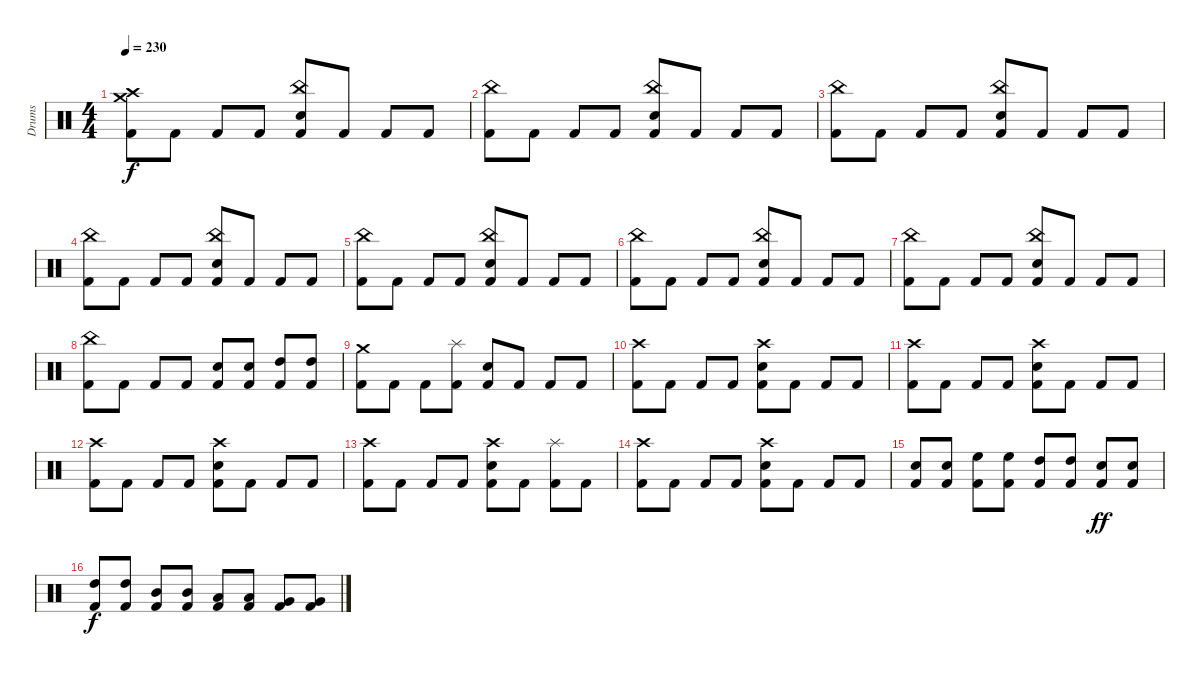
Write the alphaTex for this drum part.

\track ("Drums" "Drums") {instrument percussion}
\staff {score}
\articulation defaults
\ts (4 4)
\tempo 230
\clef neutral
\ks c
("Crash medium (hit)" "Crash high (hit)" "Kick (hit) 2").8{dy f} "Kick (hit) 2".8 "Kick (hit) 2".8 "Kick (hit) 2".8 ("China (hit)" "Electric Snare (hit)" "Kick (hit) 2").8 "Kick (hit) 2".8 "Kick (hit) 2".8 "Kick (hit) 2".8 |
("China (hit)" "Kick (hit) 2").8 "Kick (hit) 2".8 "Kick (hit) 2".8 "Kick (hit) 2".8 ("China (hit)" "Electric Snare (hit)" "Kick (hit) 2").8 "Kick (hit) 2".8 "Kick (hit) 2".8 "Kick (hit) 2".8 |
("China (hit)" "Kick (hit) 2").8 "Kick (hit) 2".8 "Kick (hit) 2".8 "Kick (hit) 2".8 ("China (hit)" "Electric Snare (hit)" "Kick (hit) 2").8 "Kick (hit) 2".8 "Kick (hit) 2".8 "Kick (hit) 2".8 |
("China (hit)" "Kick (hit) 2").8 "Kick (hit) 2".8 "Kick (hit) 2".8 "Kick (hit) 2".8 ("China (hit)" "Electric Snare (hit)" "Kick (hit) 2").8 "Kick (hit) 2".8 "Kick (hit) 2".8 "Kick (hit) 2".8 |
("China (hit)" "Kick (hit) 2").8 "Kick (hit) 2".8 "Kick (hit) 2".8 "Kick (hit) 2".8 ("China (hit)" "Electric Snare (hit)" "Kick (hit) 2").8 "Kick (hit) 2".8 "Kick (hit) 2".8 "Kick (hit) 2".8 |
("China (hit)" "Kick (hit) 2").8 "Kick (hit) 2".8 "Kick (hit) 2".8 "Kick (hit) 2".8 ("China (hit)" "Electric Snare (hit)" "Kick (hit) 2").8 "Kick (hit) 2".8 "Kick (hit) 2".8 "Kick (hit) 2".8 |
("China (hit)" "Kick (hit) 2").8 "Kick (hit) 2".8 "Kick (hit) 2".8 "Kick (hit) 2".8 ("China (hit)" "Electric Snare (hit)" "Kick (hit) 2").8 "Kick (hit) 2".8 "Kick (hit) 2".8 "Kick (hit) 2".8 |
("China (hit)" "Kick (hit) 2").8 "Kick (hit) 2".8 "Kick (hit) 2".8 "Kick (hit) 2".8 ("Electric Snare (hit)" "Kick (hit) 2").8 ("Electric Snare (hit)" "Kick (hit) 2").8 ("High Tom (hit)" "Kick (hit) 2").8 ("High Tom (hit)" "Kick (hit) 2").8 |
("Crash medium (hit)" "Kick (hit) 2").8 "Kick (hit) 2".8 "Kick (hit) 2".8 ("Splash (hit)" "Kick (hit) 2").8 ("Electric Snare (hit)" "Kick (hit) 2").8 "Kick (hit) 2".8 "Kick (hit) 2".8 "Kick (hit) 2".8 |
("Crash high (hit)" "Kick (hit) 2").8 "Kick (hit) 2".8 "Kick (hit) 2".8 "Kick (hit) 2".8 ("Crash high (hit)" "Electric Snare (hit)" "Kick (hit) 2").8 "Kick (hit) 2".8 "Kick (hit) 2".8 "Kick (hit) 2".8 |
("Crash high (hit)" "Kick (hit) 2").8 "Kick (hit) 2".8 "Kick (hit) 2".8 "Kick (hit) 2".8 ("Crash high (hit)" "Electric Snare (hit)" "Kick (hit) 2").8 "Kick (hit) 2".8 "Kick (hit) 2".8 "Kick (hit) 2".8 |
("Crash high (hit)" "Kick (hit) 2").8 "Kick (hit) 2".8 "Kick (hit) 2".8 "Kick (hit) 2".8 ("Crash high (hit)" "Electric Snare (hit)" "Kick (hit) 2").8 "Kick (hit) 2".8 "Kick (hit) 2".8 "Kick (hit) 2".8 |
("Crash high (hit)" "Kick (hit) 2").8 "Kick (hit) 2".8 "Kick (hit) 2".8 "Kick (hit) 2".8 ("Crash high (hit)" "Electric Snare (hit)" "Kick (hit) 2").8 "Kick (hit) 2".8 ("Splash (hit)" "Kick (hit) 2").8 "Kick (hit) 2".8 |
("Crash high (hit)" "Kick (hit) 2").8 "Kick (hit) 2".8 "Kick (hit) 2".8 "Kick (hit) 2".8 ("Crash high (hit)" "Electric Snare (hit)" "Kick (hit) 2").8 "Kick (hit) 2".8 "Kick (hit) 2".8 "Kick (hit) 2".8 |
("Electric Snare (hit)" "Kick (hit) 2").8 ("Electric Snare (hit)" "Kick (hit) 2").8 ("High Floor Tom (hit)" "Kick (hit) 2").8 ("High Floor Tom (hit)" "Kick (hit) 2").8 ("High Tom (hit)" "Kick (hit) 2").8 ("High Tom (hit)" "Kick (hit) 2").8 ("Electric Snare (hit)" "Kick (hit) 2").8{dy ff} ("Electric Snare (hit)" "Kick (hit) 2").8 |
("High Tom (hit)" "Kick (hit) 2").8{dy f} ("High Tom (hit)" "Kick (hit) 2").8 ("Mid Tom (hit)" "Kick (hit) 2").8 ("Mid Tom (hit)" "Kick (hit) 2").8 ("Low Tom (hit)" "Kick (hit) 2").8 ("Low Tom (hit)" "Kick (hit) 2").8 ("Very Low Tom (hit)" "Kick (hit) 2").8 ("Very Low Tom (hit)" "Kick (hit) 2").8
